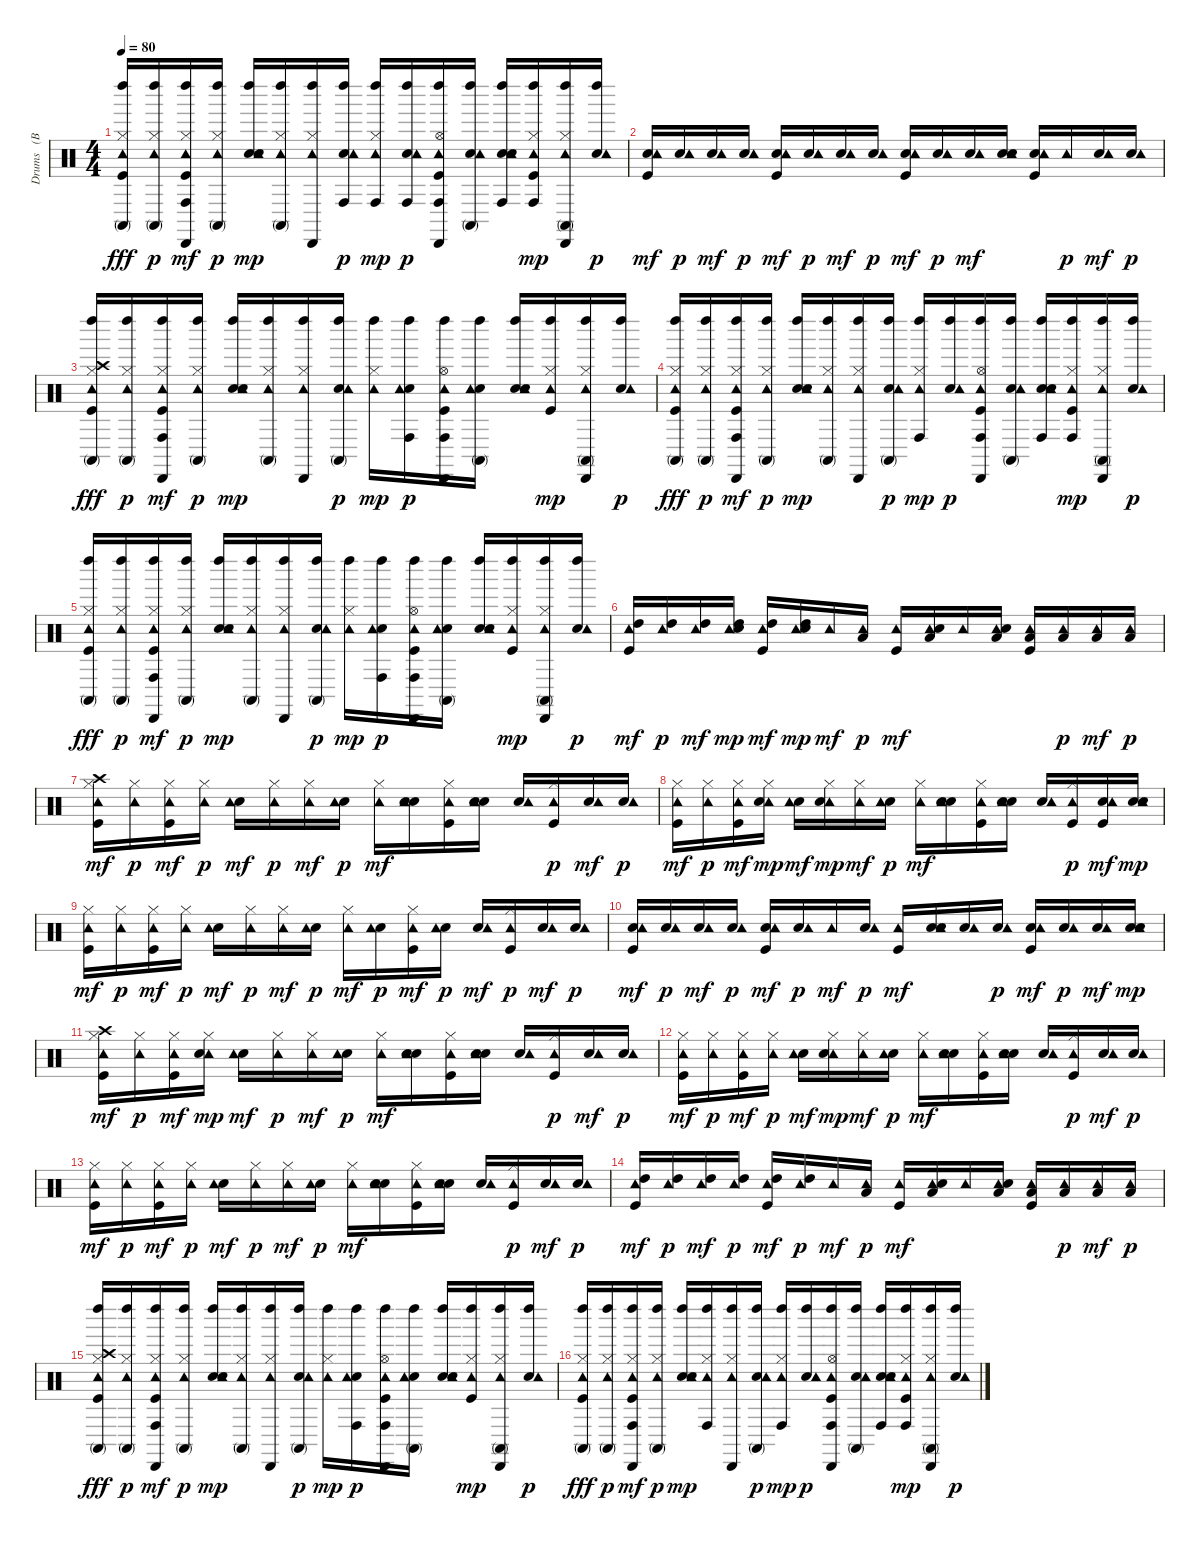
\track ("Drums   (BB)" "Drums   (B") {instrument percussion}
\staff {score}
\articulation defaults
\ts (4 4)
\tempo 80
\clef neutral
\ks c
("Kick (hit)" "Hi-Hat (closed)" "Conga high (mute)" "Tambourine (hit)" "Left Maraca (hit)").16{dy fff} ("Hi-Hat (closed)" "Conga high (mute)" "Tambourine (hit)" "Left Maraca (hit)").16{dy p} ("Kick (hit)" "Hi-Hat (closed)" "Conga high (hit)" "Tambourine (hit)" "Left Maraca (hit)" "Cabasa (hit)").16{dy mf} ("Hi-Hat (closed)" "Conga high (mute)" "Tambourine (hit)" "Left Maraca (hit)").16{dy p} ("Snare (hit) 2" "Tambourine (hit)" "Hand Clap (hit)" "Left Maraca (hit)").16{dy mp} ("Hi-Hat (closed)" "Conga high (mute)" "Tambourine (hit)" "Left Maraca (hit)").16 ("Hi-Hat (closed)" "Tambourine (hit)" "Left Maraca (hit)" "Cabasa (hit)").16 ("Snare (hit) 2" "Conga high (hit)" "Tambourine (hit)" "Left Maraca (hit)").16{dy p} ("Hi-Hat (closed)" "Conga high (hit)" "Tambourine (hit)" "Left Maraca (hit)").16{dy mp} ("Snare (hit) 2" "Conga high (hit)" "Tambourine (hit)" "Left Maraca (hit)").16{dy p} ("Kick (hit)" "Hi-Hat (open)" "Conga high (hit)" "Tambourine (hit)" "Left Maraca (hit)" "Cabasa (hit)").16 ("Snare (hit) 2" "Conga high (mute)" "Tambourine (hit)" "Left Maraca (hit)").16 ("Snare (hit) 2" "Conga high (hit)" "Tambourine (hit)" "Hand Clap (hit)" "Left Maraca (hit)").16 ("Kick (hit)" "Hi-Hat (closed)" "Conga high (hit)" "Tambourine (hit)" "Left Maraca (hit)").16{dy mp} ("Hi-Hat (closed)" "Conga high (mute)" "Tambourine (hit)" "Left Maraca (hit)" "Cabasa (hit)").16 ("Snare (hit) 2" "Tambourine (hit)" "Left Maraca (hit)").16{dy p} |
("Kick (hit)" "Snare (hit) 2" "Tambourine (hit)").16{dy mf} ("Snare (hit) 2" "Tambourine (hit)").16{dy p} ("Snare (hit) 2" "Tambourine (hit)").16{dy mf} ("Snare (hit) 2" "Tambourine (hit)").16{dy p} ("Kick (hit)" "Snare (hit) 2" "Tambourine (hit)").16{dy mf} ("Snare (hit) 2" "Tambourine (hit)").16{dy p} ("Snare (hit) 2" "Tambourine (hit)").16{dy mf} ("Snare (hit) 2" "Tambourine (hit)").16{dy p} ("Kick (hit)" "Snare (hit) 2" "Tambourine (hit)").16{dy mf} ("Snare (hit) 2" "Tambourine (hit)").16{dy p} ("Snare (hit) 2" "Tambourine (hit)").16{dy mf} ("Snare (hit) 2" "Tambourine (hit)" "Hand Clap (hit)").16 ("Kick (hit)" "Snare (hit) 2" "Tambourine (hit)").16 "Tambourine (hit)".16{dy p} ("Snare (hit) 2" "Tambourine (hit)").16{dy mf} ("Snare (hit) 2" "Tambourine (hit)").16{dy p} |
("Kick (hit)" "Hi-Hat (closed)" "Crash high (hit)" "Conga high (mute)" "Tambourine (hit)" "Left Maraca (hit)").16{dy fff} ("Hi-Hat (closed)" "Conga high (mute)" "Tambourine (hit)" "Left Maraca (hit)").16{dy p} ("Kick (hit)" "Hi-Hat (closed)" "Conga high (hit)" "Tambourine (hit)" "Left Maraca (hit)" "Cabasa (hit)").16{dy mf} ("Hi-Hat (closed)" "Conga high (mute)" "Tambourine (hit)" "Left Maraca (hit)").16{dy p} ("Snare (hit) 2" "Tambourine (hit)" "Hand Clap (hit)" "Left Maraca (hit)").16{dy mp} ("Hi-Hat (closed)" "Conga high (mute)" "Tambourine (hit)" "Left Maraca (hit)").16 ("Hi-Hat (closed)" "Tambourine (hit)" "Left Maraca (hit)" "Cabasa (hit)").16 ("Snare (hit) 2" "Conga high (mute)" "Tambourine (hit)" "Left Maraca (hit)").16{dy p} ("Hi-Hat (closed)" "Tambourine (hit)" "Left Maraca (hit)").16{dy mp} ("Snare (hit) 2" "Conga high (hit)" "Tambourine (hit)" "Left Maraca (hit)").16{dy p} ("Kick (hit)" "Hi-Hat (open)" "Conga high (hit)" "Tambourine (hit)" "Left Maraca (hit)" "Cabasa (hit)").16 ("Snare (hit) 2" "Conga high (mute)" "Tambourine (hit)" "Left Maraca (hit)").16 ("Snare (hit) 2" "Tambourine (hit)" "Hand Clap (hit)" "Left Maraca (hit)").16 ("Kick (hit)" "Hi-Hat (closed)" "Tambourine (hit)" "Left Maraca (hit)").16{dy mp} ("Hi-Hat (closed)" "Conga high (mute)" "Tambourine (hit)" "Left Maraca (hit)" "Cabasa (hit)").16 ("Snare (hit) 2" "Tambourine (hit)" "Left Maraca (hit)").16{dy p} |
("Kick (hit)" "Hi-Hat (closed)" "Conga high (mute)" "Tambourine (hit)" "Left Maraca (hit)").16{dy fff} ("Hi-Hat (closed)" "Conga high (mute)" "Tambourine (hit)" "Left Maraca (hit)").16{dy p} ("Kick (hit)" "Hi-Hat (closed)" "Conga high (hit)" "Tambourine (hit)" "Left Maraca (hit)" "Cabasa (hit)").16{dy mf} ("Hi-Hat (closed)" "Conga high (mute)" "Tambourine (hit)" "Left Maraca (hit)").16{dy p} ("Snare (hit) 2" "Tambourine (hit)" "Hand Clap (hit)" "Left Maraca (hit)").16{dy mp} ("Hi-Hat (closed)" "Conga high (mute)" "Tambourine (hit)" "Left Maraca (hit)").16 ("Hi-Hat (closed)" "Tambourine (hit)" "Left Maraca (hit)" "Cabasa (hit)").16 ("Snare (hit) 2" "Conga high (mute)" "Tambourine (hit)" "Left Maraca (hit)").16{dy p} ("Hi-Hat (closed)" "Conga high (hit)" "Tambourine (hit)" "Left Maraca (hit)").16{dy mp} ("Snare (hit) 2" "Tambourine (hit)" "Left Maraca (hit)").16{dy p} ("Kick (hit)" "Hi-Hat (open)" "Conga high (hit)" "Tambourine (hit)" "Left Maraca (hit)" "Cabasa (hit)").16 ("Snare (hit) 2" "Conga high (mute)" "Tambourine (hit)" "Left Maraca (hit)").16 ("Snare (hit) 2" "Conga high (hit)" "Tambourine (hit)" "Hand Clap (hit)" "Left Maraca (hit)").16 ("Kick (hit)" "Hi-Hat (closed)" "Conga high (hit)" "Tambourine (hit)" "Left Maraca (hit)").16{dy mp} ("Hi-Hat (closed)" "Conga high (mute)" "Tambourine (hit)" "Left Maraca (hit)" "Cabasa (hit)").16 ("Snare (hit) 2" "Tambourine (hit)" "Left Maraca (hit)").16{dy p} |
("Kick (hit)" "Hi-Hat (closed)" "Conga high (mute)" "Tambourine (hit)" "Left Maraca (hit)").16{dy fff} ("Hi-Hat (closed)" "Conga high (mute)" "Tambourine (hit)" "Left Maraca (hit)").16{dy p} ("Kick (hit)" "Hi-Hat (closed)" "Conga high (hit)" "Tambourine (hit)" "Left Maraca (hit)" "Cabasa (hit)").16{dy mf} ("Hi-Hat (closed)" "Conga high (mute)" "Tambourine (hit)" "Left Maraca (hit)").16{dy p} ("Snare (hit) 2" "Tambourine (hit)" "Hand Clap (hit)" "Left Maraca (hit)").16{dy mp} ("Hi-Hat (closed)" "Conga high (mute)" "Tambourine (hit)" "Left Maraca (hit)").16 ("Hi-Hat (closed)" "Tambourine (hit)" "Left Maraca (hit)" "Cabasa (hit)").16 ("Snare (hit) 2" "Conga high (mute)" "Tambourine (hit)" "Left Maraca (hit)").16{dy p} ("Hi-Hat (closed)" "Tambourine (hit)" "Left Maraca (hit)").16{dy mp} ("Snare (hit) 2" "Conga high (hit)" "Tambourine (hit)" "Left Maraca (hit)").16{dy p} ("Kick (hit)" "Hi-Hat (open)" "Conga high (hit)" "Tambourine (hit)" "Left Maraca (hit)" "Cabasa (hit)").16 ("Snare (hit) 2" "Conga high (mute)" "Tambourine (hit)" "Left Maraca (hit)").16 ("Snare (hit) 2" "Tambourine (hit)" "Hand Clap (hit)" "Left Maraca (hit)").16 ("Kick (hit)" "Hi-Hat (closed)" "Tambourine (hit)" "Left Maraca (hit)").16{dy mp} ("Hi-Hat (closed)" "Conga high (mute)" "Tambourine (hit)" "Left Maraca (hit)" "Cabasa (hit)").16 ("Snare (hit) 2" "Tambourine (hit)" "Left Maraca (hit)").16{dy p} |
("Kick (hit)" "High Tom (hit)" "Tambourine (hit)").16{dy mf} ("High Tom (hit)" "Tambourine (hit)").16{dy p} ("High Tom (hit)" "Tambourine (hit)").16{dy mf} ("High Tom (hit)" "Tambourine (hit)" "Hand Clap (hit)").16{dy mp} ("Kick (hit)" "High Tom (hit)" "Tambourine (hit)").16{dy mf} ("High Tom (hit)" "Tambourine (hit)" "Hand Clap (hit)").16{dy mp} "Tambourine (hit)".16{dy mf} ("Low Tom (hit)" "Tambourine (hit)").16{dy p} ("Kick (hit)" "Tambourine (hit)").16{dy mf} ("Low Tom (hit)" "Tambourine (hit)" "Hand Clap (hit)").16 "Tambourine (hit)".16 ("Low Floor Tom (hit)" "Tambourine (hit)" "Hand Clap (hit)").16 ("Kick (hit)" "Low Floor Tom (hit)" "Tambourine (hit)").16 ("Low Floor Tom (hit)" "Tambourine (hit)").16{dy p} ("Low Floor Tom (hit)" "Tambourine (hit)").16{dy mf} ("Low Floor Tom (hit)" "Tambourine (hit)").16{dy p} |
("Kick (hit)" "Hi-Hat (closed)" "Crash high (hit)" "Tambourine (hit)").16{dy mf} ("Hi-Hat (closed)" "Tambourine (hit)").16{dy p} ("Kick (hit)" "Hi-Hat (closed)" "Tambourine (hit)").16{dy mf} ("Hi-Hat (closed)" "Tambourine (hit)").16{dy p} ("Snare (hit) 2" "Tambourine (hit)").16{dy mf} ("Hi-Hat (closed)" "Tambourine (hit)").16{dy p} ("Hi-Hat (closed)" "Tambourine (hit)").16{dy mf} ("Snare (hit) 2" "Tambourine (hit)").16{dy p} ("Hi-Hat (closed)" "Tambourine (hit)").16{dy mf} ("Snare (hit) 2" "Tambourine (hit)" "Hand Clap (hit)").16 ("Kick (hit)" "Hi-Hat (closed)" "Tambourine (hit)").16 ("Snare (hit) 2" "Tambourine (hit)" "Hand Clap (hit)").16 ("Snare (hit) 2" "Tambourine (hit)").16 ("Kick (hit)" "Hi-Hat (closed)" "Tambourine (hit)").16{dy p} ("Snare (hit) 2" "Tambourine (hit)").16{dy mf} ("Snare (hit) 2" "Tambourine (hit)").16{dy p} |
("Kick (hit)" "Hi-Hat (closed)" "Tambourine (hit)").16{dy mf} ("Hi-Hat (closed)" "Tambourine (hit)").16{dy p} ("Kick (hit)" "Hi-Hat (closed)" "Tambourine (hit)").16{dy mf} ("Hi-Hat (closed)" "Tambourine (hit)" "Hand Clap (hit)").16{dy mp} ("Snare (hit) 2" "Tambourine (hit)").16{dy mf} ("Hi-Hat (closed)" "Tambourine (hit)" "Hand Clap (hit)").16{dy mp} ("Hi-Hat (closed)" "Tambourine (hit)").16{dy mf} ("Snare (hit) 2" "Tambourine (hit)").16{dy p} ("Hi-Hat (closed)" "Tambourine (hit)").16{dy mf} ("Snare (hit) 2" "Tambourine (hit)" "Hand Clap (hit)").16 ("Kick (hit)" "Hi-Hat (closed)" "Tambourine (hit)").16 ("Snare (hit) 2" "Tambourine (hit)" "Hand Clap (hit)").16 ("Snare (hit) 2" "Tambourine (hit)").16 ("Kick (hit)" "Hi-Hat (closed)" "Tambourine (hit)").16{dy p} ("Kick (hit)" "Snare (hit) 2" "Tambourine (hit)").16{dy mf} ("Snare (hit) 2" "Tambourine (hit)" "Hand Clap (hit)").16{dy mp} |
("Kick (hit)" "Hi-Hat (closed)" "Tambourine (hit)").16{dy mf} ("Hi-Hat (closed)" "Tambourine (hit)").16{dy p} ("Kick (hit)" "Hi-Hat (closed)" "Tambourine (hit)").16{dy mf} ("Hi-Hat (closed)" "Tambourine (hit)").16{dy p} ("Snare (hit) 2" "Tambourine (hit)").16{dy mf} ("Hi-Hat (closed)" "Tambourine (hit)").16{dy p} ("Hi-Hat (closed)" "Tambourine (hit)").16{dy mf} ("Snare (hit) 2" "Tambourine (hit)").16{dy p} ("Hi-Hat (closed)" "Tambourine (hit)").16{dy mf} ("Snare (hit) 2" "Tambourine (hit)").16{dy p} ("Kick (hit)" "Hi-Hat (closed)" "Tambourine (hit)").16{dy mf} ("Snare (hit) 2" "Tambourine (hit)").16{dy p} ("Snare (hit) 2" "Tambourine (hit)").16{dy mf} ("Kick (hit)" "Hi-Hat (closed)" "Tambourine (hit)").16{dy p} ("Snare (hit) 2" "Tambourine (hit)").16{dy mf} ("Snare (hit) 2" "Tambourine (hit)").16{dy p} |
("Kick (hit)" "Snare (hit) 2" "Tambourine (hit)").16{dy mf} ("Snare (hit) 2" "Tambourine (hit)").16{dy p} ("Snare (hit) 2" "Tambourine (hit)").16{dy mf} ("Snare (hit) 2" "Tambourine (hit)").16{dy p} ("Kick (hit)" "Snare (hit) 2" "Tambourine (hit)").16{dy mf} ("Snare (hit) 2" "Tambourine (hit)").16{dy p} "Tambourine (hit)".16{dy mf} ("Snare (hit) 2" "Tambourine (hit)").16{dy p} ("Kick (hit)" "Tambourine (hit)").16{dy mf} ("Snare (hit) 2" "Tambourine (hit)" "Hand Clap (hit)").16 ("Snare (hit) 2" "Tambourine (hit)").16 ("Snare (hit) 2" "Tambourine (hit)").16{dy p} ("Kick (hit)" "Snare (hit) 2" "Tambourine (hit)").16{dy mf} ("Snare (hit) 2" "Tambourine (hit)").16{dy p} ("Snare (hit) 2" "Tambourine (hit)").16{dy mf} ("Snare (hit) 2" "Tambourine (hit)" "Hand Clap (hit)").16{dy mp} |
("Kick (hit)" "Hi-Hat (closed)" "Crash high (hit)" "Tambourine (hit)").16{dy mf} ("Hi-Hat (closed)" "Tambourine (hit)").16{dy p} ("Kick (hit)" "Hi-Hat (closed)" "Tambourine (hit)").16{dy mf} ("Hi-Hat (closed)" "Tambourine (hit)" "Hand Clap (hit)").16{dy mp} ("Snare (hit) 2" "Tambourine (hit)").16{dy mf} ("Hi-Hat (closed)" "Tambourine (hit)").16{dy p} ("Hi-Hat (closed)" "Tambourine (hit)").16{dy mf} ("Snare (hit) 2" "Tambourine (hit)").16{dy p} ("Hi-Hat (closed)" "Tambourine (hit)").16{dy mf} ("Snare (hit) 2" "Tambourine (hit)" "Hand Clap (hit)").16 ("Kick (hit)" "Hi-Hat (closed)" "Tambourine (hit)").16 ("Snare (hit) 2" "Tambourine (hit)" "Hand Clap (hit)").16 ("Snare (hit) 2" "Tambourine (hit)").16 ("Kick (hit)" "Hi-Hat (closed)" "Tambourine (hit)").16{dy p} ("Snare (hit) 2" "Tambourine (hit)").16{dy mf} ("Snare (hit) 2" "Tambourine (hit)").16{dy p} |
("Kick (hit)" "Hi-Hat (closed)" "Tambourine (hit)").16{dy mf} ("Hi-Hat (closed)" "Tambourine (hit)").16{dy p} ("Kick (hit)" "Hi-Hat (closed)" "Tambourine (hit)").16{dy mf} ("Hi-Hat (closed)" "Tambourine (hit)").16{dy p} ("Snare (hit) 2" "Tambourine (hit)").16{dy mf} ("Hi-Hat (closed)" "Tambourine (hit)" "Hand Clap (hit)").16{dy mp} ("Hi-Hat (closed)" "Tambourine (hit)").16{dy mf} ("Snare (hit) 2" "Tambourine (hit)").16{dy p} ("Hi-Hat (closed)" "Tambourine (hit)").16{dy mf} ("Snare (hit) 2" "Tambourine (hit)" "Hand Clap (hit)").16 ("Kick (hit)" "Hi-Hat (closed)" "Tambourine (hit)").16 ("Snare (hit) 2" "Tambourine (hit)" "Hand Clap (hit)").16 ("Snare (hit) 2" "Tambourine (hit)").16 ("Kick (hit)" "Hi-Hat (closed)" "Tambourine (hit)").16{dy p} ("Snare (hit) 2" "Tambourine (hit)").16{dy mf} ("Snare (hit) 2" "Tambourine (hit)").16{dy p} |
("Kick (hit)" "Hi-Hat (closed)" "Tambourine (hit)").16{dy mf} ("Hi-Hat (closed)" "Tambourine (hit)").16{dy p} ("Kick (hit)" "Hi-Hat (closed)" "Tambourine (hit)").16{dy mf} ("Hi-Hat (closed)" "Tambourine (hit)").16{dy p} ("Snare (hit) 2" "Tambourine (hit)").16{dy mf} ("Hi-Hat (closed)" "Tambourine (hit)").16{dy p} ("Hi-Hat (closed)" "Tambourine (hit)").16{dy mf} ("Snare (hit) 2" "Tambourine (hit)").16{dy p} ("Hi-Hat (closed)" "Tambourine (hit)").16{dy mf} ("Snare (hit) 2" "Tambourine (hit)" "Hand Clap (hit)").16 ("Kick (hit)" "Hi-Hat (closed)" "Tambourine (hit)").16 ("Snare (hit) 2" "Tambourine (hit)" "Hand Clap (hit)").16 ("Snare (hit) 2" "Tambourine (hit)").16 ("Kick (hit)" "Hi-Hat (closed)" "Tambourine (hit)").16{dy p} ("Snare (hit) 2" "Tambourine (hit)").16{dy mf} ("Snare (hit) 2" "Tambourine (hit)").16{dy p} |
("Kick (hit)" "High Tom (hit)" "Tambourine (hit)").16{dy mf} ("High Tom (hit)" "Tambourine (hit)").16{dy p} ("High Tom (hit)" "Tambourine (hit)").16{dy mf} ("High Tom (hit)" "Tambourine (hit)").16{dy p} ("Kick (hit)" "High Tom (hit)" "Tambourine (hit)").16{dy mf} ("High Tom (hit)" "Tambourine (hit)").16{dy p} "Tambourine (hit)".16{dy mf} ("Low Tom (hit)" "Tambourine (hit)").16{dy p} ("Kick (hit)" "Tambourine (hit)").16{dy mf} ("Low Tom (hit)" "Tambourine (hit)" "Hand Clap (hit)").16 "Tambourine (hit)".16 ("Low Floor Tom (hit)" "Tambourine (hit)" "Hand Clap (hit)").16 ("Kick (hit)" "Low Floor Tom (hit)" "Tambourine (hit)").16 ("Low Floor Tom (hit)" "Tambourine (hit)").16{dy p} ("Low Floor Tom (hit)" "Tambourine (hit)").16{dy mf} ("Low Floor Tom (hit)" "Tambourine (hit)").16{dy p} |
("Kick (hit)" "Hi-Hat (closed)" "Crash high (hit)" "Conga high (mute)" "Tambourine (hit)" "Left Maraca (hit)").16{dy fff} ("Hi-Hat (closed)" "Conga high (mute)" "Tambourine (hit)" "Left Maraca (hit)").16{dy p} ("Kick (hit)" "Hi-Hat (closed)" "Conga high (hit)" "Tambourine (hit)" "Left Maraca (hit)" "Cabasa (hit)").16{dy mf} ("Hi-Hat (closed)" "Conga high (mute)" "Tambourine (hit)" "Left Maraca (hit)").16{dy p} ("Snare (hit) 2" "Tambourine (hit)" "Hand Clap (hit)" "Left Maraca (hit)").16{dy mp} ("Hi-Hat (closed)" "Conga high (mute)" "Tambourine (hit)" "Left Maraca (hit)").16 ("Hi-Hat (closed)" "Tambourine (hit)" "Left Maraca (hit)" "Cabasa (hit)").16 ("Snare (hit) 2" "Conga high (mute)" "Tambourine (hit)" "Left Maraca (hit)").16{dy p} ("Hi-Hat (closed)" "Tambourine (hit)" "Left Maraca (hit)").16{dy mp} ("Snare (hit) 2" "Conga high (hit)" "Tambourine (hit)" "Left Maraca (hit)").16{dy p} ("Kick (hit)" "Hi-Hat (open)" "Conga high (hit)" "Tambourine (hit)" "Left Maraca (hit)" "Cabasa (hit)").16 ("Snare (hit) 2" "Conga high (mute)" "Tambourine (hit)" "Left Maraca (hit)").16 ("Snare (hit) 2" "Tambourine (hit)" "Hand Clap (hit)" "Left Maraca (hit)").16 ("Kick (hit)" "Hi-Hat (closed)" "Tambourine (hit)" "Left Maraca (hit)").16{dy mp} ("Hi-Hat (closed)" "Conga high (mute)" "Tambourine (hit)" "Left Maraca (hit)" "Cabasa (hit)").16 ("Snare (hit) 2" "Tambourine (hit)" "Left Maraca (hit)").16{dy p} |
("Kick (hit)" "Hi-Hat (closed)" "Conga high (mute)" "Tambourine (hit)" "Left Maraca (hit)").16{dy fff} ("Hi-Hat (closed)" "Conga high (mute)" "Tambourine (hit)" "Left Maraca (hit)").16{dy p} ("Kick (hit)" "Hi-Hat (closed)" "Conga high (hit)" "Tambourine (hit)" "Left Maraca (hit)" "Cabasa (hit)").16{dy mf} ("Hi-Hat (closed)" "Conga high (mute)" "Tambourine (hit)" "Left Maraca (hit)").16{dy p} ("Snare (hit) 2" "Tambourine (hit)" "Hand Clap (hit)" "Left Maraca (hit)").16{dy mp} ("Hi-Hat (closed)" "Conga high (hit)" "Tambourine (hit)" "Left Maraca (hit)").16 ("Hi-Hat (closed)" "Tambourine (hit)" "Left Maraca (hit)" "Cabasa (hit)").16 ("Snare (hit) 2" "Conga high (mute)" "Tambourine (hit)" "Left Maraca (hit)").16{dy p} ("Hi-Hat (closed)" "Conga high (hit)" "Tambourine (hit)" "Left Maraca (hit)").16{dy mp} ("Snare (hit) 2" "Tambourine (hit)" "Left Maraca (hit)").16{dy p} ("Kick (hit)" "Hi-Hat (open)" "Conga high (hit)" "Tambourine (hit)" "Left Maraca (hit)" "Cabasa (hit)").16 ("Snare (hit) 2" "Conga high (mute)" "Tambourine (hit)" "Left Maraca (hit)").16 ("Snare (hit) 2" "Conga high (hit)" "Tambourine (hit)" "Hand Clap (hit)" "Left Maraca (hit)").16 ("Kick (hit)" "Hi-Hat (closed)" "Conga high (hit)" "Tambourine (hit)" "Left Maraca (hit)").16{dy mp} ("Hi-Hat (closed)" "Conga high (mute)" "Tambourine (hit)" "Left Maraca (hit)" "Cabasa (hit)").16 ("Snare (hit) 2" "Tambourine (hit)" "Left Maraca (hit)").16{dy p}
